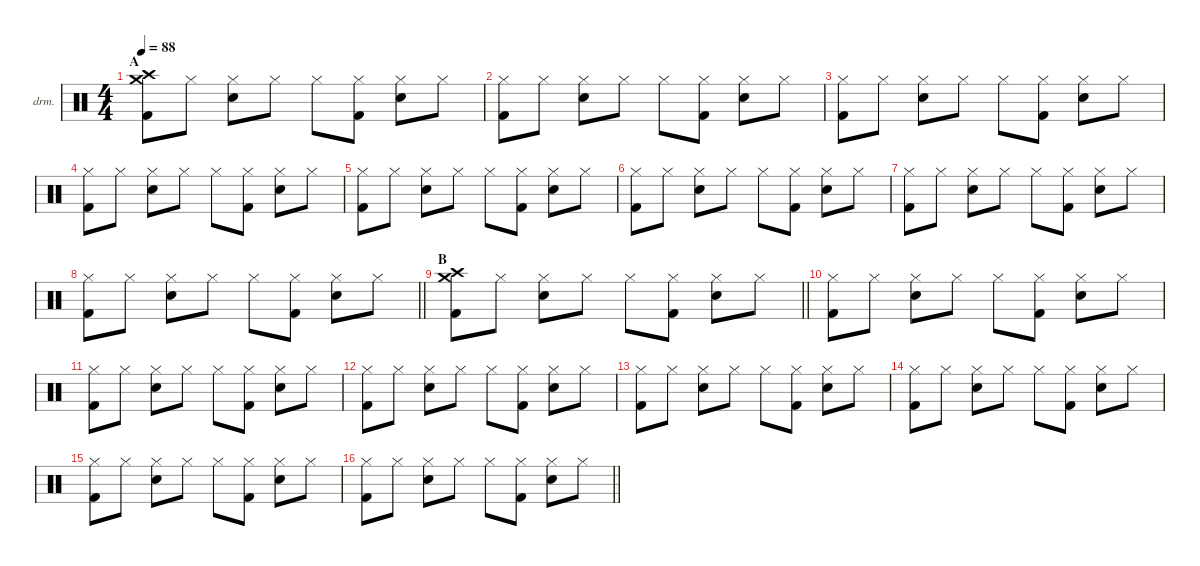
\defaultSystemsLayout 4
\hideDynamics
\bracketExtendMode nobrackets
\firstSystemTrackNameOrientation horizontal
\otherSystemsTrackNameOrientation horizontal
\track ("Percussie" "drm.") {instrument percussion}
\staff {score}
\articulation defaults
\ts (4 4)
\beaming (8 2 2 2 2)
\section ("" "A")
\tempo 88
\clef neutral
\ks c
("Crash medium (hit)" "Crash high (hit)" "Kick (hit) 2").8{dy f} "Hi-Hat (closed)".8 ("Hi-Hat (closed)" "Snare (hit) 2").8 "Hi-Hat (closed)".8 "Hi-Hat (closed)".8 ("Hi-Hat (closed)" "Kick (hit) 2").8 ("Hi-Hat (closed)" "Snare (hit) 2").8 "Hi-Hat (closed)".8 |
("Hi-Hat (closed)" "Kick (hit) 2").8 "Hi-Hat (closed)".8 ("Hi-Hat (closed)" "Snare (hit) 2").8 "Hi-Hat (closed)".8 "Hi-Hat (closed)".8 ("Hi-Hat (closed)" "Kick (hit) 2").8 ("Hi-Hat (closed)" "Snare (hit) 2").8 "Hi-Hat (closed)".8 |
("Hi-Hat (closed)" "Kick (hit) 2").8 "Hi-Hat (closed)".8 ("Hi-Hat (closed)" "Snare (hit) 2").8 "Hi-Hat (closed)".8 "Hi-Hat (closed)".8 ("Hi-Hat (closed)" "Kick (hit) 2").8 ("Hi-Hat (closed)" "Snare (hit) 2").8 "Hi-Hat (closed)".8 |
("Hi-Hat (closed)" "Kick (hit) 2").8 "Hi-Hat (closed)".8 ("Hi-Hat (closed)" "Snare (hit) 2").8 "Hi-Hat (closed)".8 "Hi-Hat (closed)".8 ("Hi-Hat (closed)" "Kick (hit) 2").8 ("Hi-Hat (closed)" "Snare (hit) 2").8 "Hi-Hat (closed)".8 |
("Hi-Hat (closed)" "Kick (hit) 2").8 "Hi-Hat (closed)".8 ("Hi-Hat (closed)" "Snare (hit) 2").8 "Hi-Hat (closed)".8 "Hi-Hat (closed)".8 ("Hi-Hat (closed)" "Kick (hit) 2").8 ("Hi-Hat (closed)" "Snare (hit) 2").8 "Hi-Hat (closed)".8 |
("Hi-Hat (closed)" "Kick (hit) 2").8 "Hi-Hat (closed)".8 ("Hi-Hat (closed)" "Snare (hit) 2").8 "Hi-Hat (closed)".8 "Hi-Hat (closed)".8 ("Hi-Hat (closed)" "Kick (hit) 2").8 ("Hi-Hat (closed)" "Snare (hit) 2").8 "Hi-Hat (closed)".8 |
("Hi-Hat (closed)" "Kick (hit) 2").8 "Hi-Hat (closed)".8 ("Hi-Hat (closed)" "Snare (hit) 2").8 "Hi-Hat (closed)".8 "Hi-Hat (closed)".8 ("Hi-Hat (closed)" "Kick (hit) 2").8 ("Hi-Hat (closed)" "Snare (hit) 2").8 "Hi-Hat (closed)".8 |
\barLineRight lightlight
("Hi-Hat (closed)" "Kick (hit) 2").8 "Hi-Hat (closed)".8 ("Hi-Hat (closed)" "Snare (hit) 2").8 "Hi-Hat (closed)".8 "Hi-Hat (closed)".8 ("Hi-Hat (closed)" "Kick (hit) 2").8 ("Hi-Hat (closed)" "Snare (hit) 2").8 "Hi-Hat (closed)".8 |
\section ("" "B")
\barLineRight lightlight
("Crash high (hit)" "Crash medium (hit)" "Kick (hit) 2").8 "Hi-Hat (closed)".8 ("Hi-Hat (closed)" "Snare (hit) 2").8 "Hi-Hat (closed)".8 "Hi-Hat (closed)".8 ("Hi-Hat (closed)" "Kick (hit) 2").8 ("Hi-Hat (closed)" "Snare (hit) 2").8 "Hi-Hat (closed)".8 |
\section ("" "")
("Hi-Hat (closed)" "Kick (hit) 2").8 "Hi-Hat (closed)".8 ("Hi-Hat (closed)" "Snare (hit) 2").8 "Hi-Hat (closed)".8 "Hi-Hat (closed)".8 ("Hi-Hat (closed)" "Kick (hit) 2").8 ("Hi-Hat (closed)" "Snare (hit) 2").8 "Hi-Hat (closed)".8 |
("Hi-Hat (closed)" "Kick (hit) 2").8 "Hi-Hat (closed)".8 ("Hi-Hat (closed)" "Snare (hit) 2").8 "Hi-Hat (closed)".8 "Hi-Hat (closed)".8 ("Hi-Hat (closed)" "Kick (hit) 2").8 ("Hi-Hat (closed)" "Snare (hit) 2").8 "Hi-Hat (closed)".8 |
("Hi-Hat (closed)" "Kick (hit) 2").8 "Hi-Hat (closed)".8 ("Hi-Hat (closed)" "Snare (hit) 2").8 "Hi-Hat (closed)".8 "Hi-Hat (closed)".8 ("Hi-Hat (closed)" "Kick (hit) 2").8 ("Hi-Hat (closed)" "Snare (hit) 2").8 "Hi-Hat (closed)".8 |
("Hi-Hat (closed)" "Kick (hit) 2").8 "Hi-Hat (closed)".8 ("Hi-Hat (closed)" "Snare (hit) 2").8 "Hi-Hat (closed)".8 "Hi-Hat (closed)".8 ("Hi-Hat (closed)" "Kick (hit) 2").8 ("Hi-Hat (closed)" "Snare (hit) 2").8 "Hi-Hat (closed)".8 |
("Hi-Hat (closed)" "Kick (hit) 2").8 "Hi-Hat (closed)".8 ("Hi-Hat (closed)" "Snare (hit) 2").8 "Hi-Hat (closed)".8 "Hi-Hat (closed)".8 ("Hi-Hat (closed)" "Kick (hit) 2").8 ("Hi-Hat (closed)" "Snare (hit) 2").8 "Hi-Hat (closed)".8 |
("Hi-Hat (closed)" "Kick (hit) 2").8 "Hi-Hat (closed)".8 ("Hi-Hat (closed)" "Snare (hit) 2").8 "Hi-Hat (closed)".8 "Hi-Hat (closed)".8 ("Hi-Hat (closed)" "Kick (hit) 2").8 ("Hi-Hat (closed)" "Snare (hit) 2").8 "Hi-Hat (closed)".8 |
\barLineRight lightlight
("Hi-Hat (closed)" "Kick (hit) 2").8 "Hi-Hat (closed)".8 ("Hi-Hat (closed)" "Snare (hit) 2").8 "Hi-Hat (closed)".8 "Hi-Hat (closed)".8 ("Hi-Hat (closed)" "Kick (hit) 2").8 ("Hi-Hat (closed)" "Snare (hit) 2").8 "Hi-Hat (closed)".8
